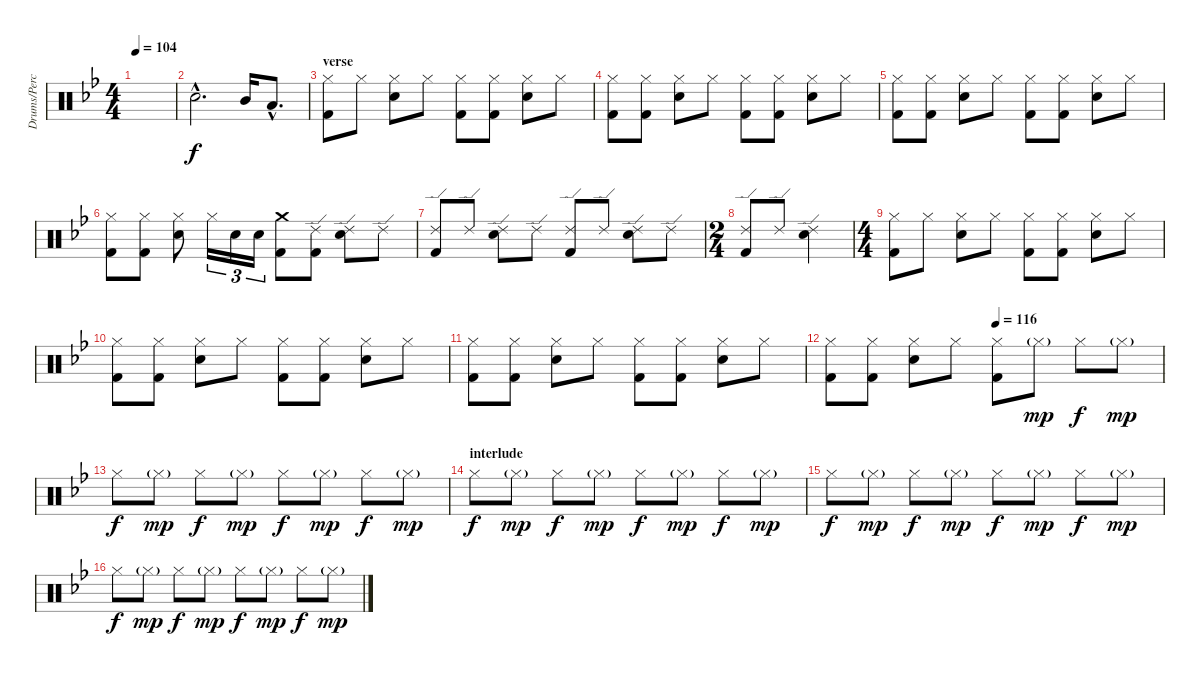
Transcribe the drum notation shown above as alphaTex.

\track ("Drums/Percussion (Bengerg)" "Drums/Perc") {instrument percussion}
\staff {score}
\articulation defaults
\ts (4 4)
\tempo 104
\clef neutral
\ks bb
|
"Electric Snare (hit)"{hac}.2{d dy f} "Mid Tom (hit)".16 "Low Tom (hit)"{hac}.8{d} |
\section ("" "verse")
("Hi-Hat (closed)" "Kick (hit) 2").8 "Hi-Hat (closed)".8 ("Hi-Hat (closed)" "Electric Snare (hit)").8 "Hi-Hat (closed)".8 ("Hi-Hat (closed)" "Kick (hit) 2").8 ("Hi-Hat (closed)" "Kick (hit) 2").8 ("Hi-Hat (closed)" "Electric Snare (hit)").8 "Hi-Hat (closed)".8 |
("Hi-Hat (closed)" "Kick (hit) 2").8 ("Hi-Hat (closed)" "Kick (hit) 2").8 ("Hi-Hat (closed)" "Electric Snare (hit)").8 "Hi-Hat (closed)".8 ("Hi-Hat (closed)" "Kick (hit) 2").8 ("Hi-Hat (closed)" "Kick (hit) 2").8 ("Hi-Hat (closed)" "Electric Snare (hit)").8 "Hi-Hat (closed)".8 |
("Hi-Hat (closed)" "Kick (hit) 2").8 ("Hi-Hat (closed)" "Kick (hit) 2").8 ("Hi-Hat (closed)" "Electric Snare (hit)").8 "Hi-Hat (closed)".8 ("Hi-Hat (closed)" "Kick (hit) 2").8 ("Hi-Hat (closed)" "Kick (hit) 2").8 ("Hi-Hat (closed)" "Electric Snare (hit)").8 "Hi-Hat (closed)".8 |
("Hi-Hat (closed)" "Kick (hit) 2").8 ("Hi-Hat (closed)" "Kick (hit) 2").8 ("Hi-Hat (closed)" "Electric Snare (hit)").8 "Hi-Hat (closed)".16{tu (3 2)} "Electric Snare (hit)".16{tu (3 2)} "Electric Snare (hit)".16{tu (3 2)} ("Crash medium (hit)" "Kick (hit) 2").8 ("Ride (edge) 2" "Kick (hit) 2").8 ("Ride (edge) 2" "Electric Snare (hit)").8 "Ride (edge) 2".8 |
("Ride (edge) 2" "Kick (hit) 2").8 "Ride (edge) 2".8 ("Ride (edge) 2" "Electric Snare (hit)").8 "Ride (edge) 2".8 ("Ride (edge) 2" "Kick (hit) 2").8 "Ride (edge) 2".8 ("Ride (edge) 2" "Electric Snare (hit)").8 "Ride (edge) 2".8 |
\ts (2 4)
("Ride (edge) 2" "Kick (hit) 2").8 "Ride (edge) 2".8 ("Ride (edge) 2" "Electric Snare (hit)").4 |
\ts (4 4)
("Hi-Hat (closed)" "Kick (hit) 2").8 "Hi-Hat (closed)".8 ("Hi-Hat (closed)" "Electric Snare (hit)").8 "Hi-Hat (closed)".8 ("Hi-Hat (closed)" "Kick (hit) 2").8 ("Hi-Hat (closed)" "Kick (hit) 2").8 ("Hi-Hat (closed)" "Electric Snare (hit)").8 "Hi-Hat (closed)".8 |
("Hi-Hat (closed)" "Kick (hit) 2").8 ("Hi-Hat (closed)" "Kick (hit) 2").8 ("Hi-Hat (closed)" "Electric Snare (hit)").8 "Hi-Hat (closed)".8 ("Hi-Hat (closed)" "Kick (hit) 2").8 ("Hi-Hat (closed)" "Kick (hit) 2").8 ("Hi-Hat (closed)" "Electric Snare (hit)").8 "Hi-Hat (closed)".8 |
("Hi-Hat (closed)" "Kick (hit) 2").8 ("Hi-Hat (closed)" "Kick (hit) 2").8 ("Hi-Hat (closed)" "Electric Snare (hit)").8 "Hi-Hat (closed)".8 ("Hi-Hat (closed)" "Kick (hit) 2").8 ("Hi-Hat (closed)" "Kick (hit) 2").8 ("Hi-Hat (closed)" "Electric Snare (hit)").8 "Hi-Hat (closed)".8 |
\tempo (116 0.5)
("Hi-Hat (closed)" "Kick (hit) 2").8 ("Hi-Hat (closed)" "Kick (hit) 2").8 ("Hi-Hat (closed)" "Electric Snare (hit)").8 "Hi-Hat (closed)".8 ("Hi-Hat (closed)" "Kick (hit) 2").8 "Hi-Hat (closed)"{g}.8{dy mp} "Hi-Hat (closed)".8{dy f} "Hi-Hat (closed)"{g}.8{dy mp} |
"Hi-Hat (closed)".8{dy f} "Hi-Hat (closed)"{g}.8{dy mp} "Hi-Hat (closed)".8{dy f} "Hi-Hat (closed)"{g}.8{dy mp} "Hi-Hat (closed)".8{dy f} "Hi-Hat (closed)"{g}.8{dy mp} "Hi-Hat (closed)".8{dy f} "Hi-Hat (closed)"{g}.8{dy mp} |
\section ("" "interlude")
"Hi-Hat (closed)".8{dy f} "Hi-Hat (closed)"{g}.8{dy mp} "Hi-Hat (closed)".8{dy f} "Hi-Hat (closed)"{g}.8{dy mp} "Hi-Hat (closed)".8{dy f} "Hi-Hat (closed)"{g}.8{dy mp} "Hi-Hat (closed)".8{dy f} "Hi-Hat (closed)"{g}.8{dy mp} |
"Hi-Hat (closed)".8{dy f} "Hi-Hat (closed)"{g}.8{dy mp} "Hi-Hat (closed)".8{dy f} "Hi-Hat (closed)"{g}.8{dy mp} "Hi-Hat (closed)".8{dy f} "Hi-Hat (closed)"{g}.8{dy mp} "Hi-Hat (closed)".8{dy f} "Hi-Hat (closed)"{g}.8{dy mp} |
"Hi-Hat (closed)".8{dy f} "Hi-Hat (closed)"{g}.8{dy mp} "Hi-Hat (closed)".8{dy f} "Hi-Hat (closed)"{g}.8{dy mp} "Hi-Hat (closed)".8{dy f} "Hi-Hat (closed)"{g}.8{dy mp} "Hi-Hat (closed)".8{dy f} "Hi-Hat (closed)"{g}.8{dy mp}
